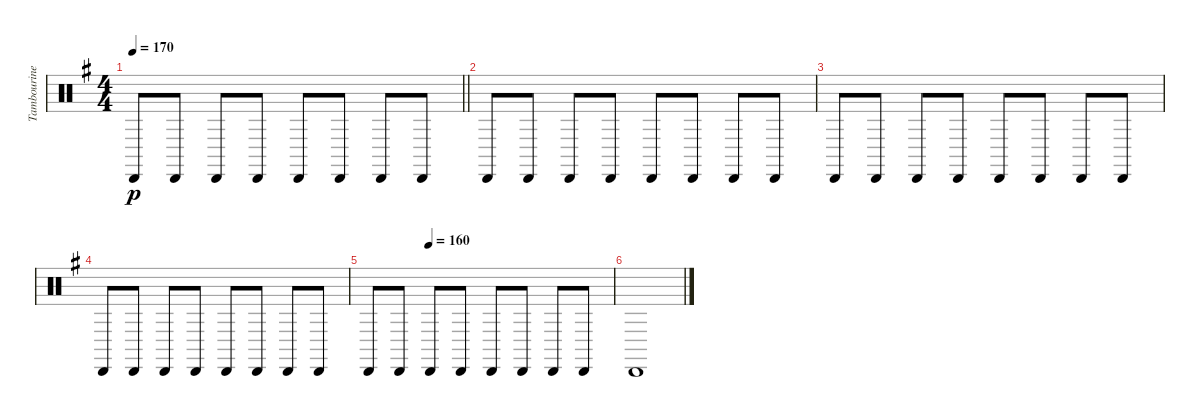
\track ("Tambourine" "Tambourine") {instrument percussion}
\staff {score}
\articulation defaults
\ts (4 4)
\tempo 170
\clef neutral
\barLineRight lightlight
\ks eminor "Cabasa (hit)".8{dy p} "Cabasa (hit)".8 "Cabasa (hit)".8 "Cabasa (hit)".8 "Cabasa (hit)".8 "Cabasa (hit)".8 "Cabasa (hit)".8 "Cabasa (hit)".8
|
"Cabasa (hit)".8 "Cabasa (hit)".8 "Cabasa (hit)".8 "Cabasa (hit)".8 "Cabasa (hit)".8 "Cabasa (hit)".8 "Cabasa (hit)".8 "Cabasa (hit)".8 |
"Cabasa (hit)".8 "Cabasa (hit)".8 "Cabasa (hit)".8 "Cabasa (hit)".8 "Cabasa (hit)".8 "Cabasa (hit)".8 "Cabasa (hit)".8 "Cabasa (hit)".8 |
"Cabasa (hit)".8 "Cabasa (hit)".8 "Cabasa (hit)".8 "Cabasa (hit)".8 "Cabasa (hit)".8 "Cabasa (hit)".8 "Cabasa (hit)".8 "Cabasa (hit)".8 |
\tempo (160 0.25)
"Cabasa (hit)".8 "Cabasa (hit)".8 "Cabasa (hit)".8 "Cabasa (hit)".8 "Cabasa (hit)".8 "Cabasa (hit)".8 "Cabasa (hit)".8 "Cabasa (hit)".8 |
"Cabasa (hit)".1
